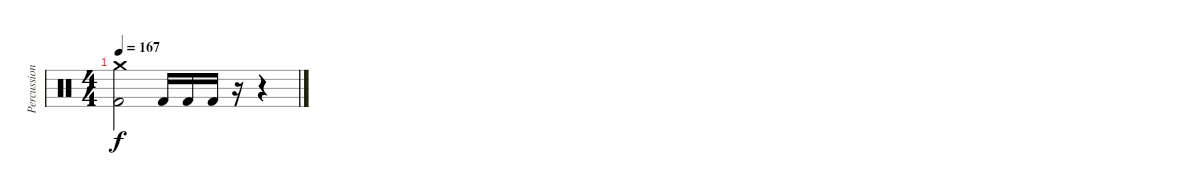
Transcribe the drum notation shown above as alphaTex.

\track ("Percussion" "Percussion") {instrument percussion}
\staff {score}
\articulation defaults
\ts (4 4)
\tempo 167
\clef neutral
\ks c
("Crash medium (hit)" "Kick (hit) 2").2{dy f} "Kick (hit) 2".16 "Kick (hit) 2".16 "Kick (hit) 2".16 r.16 r.4
